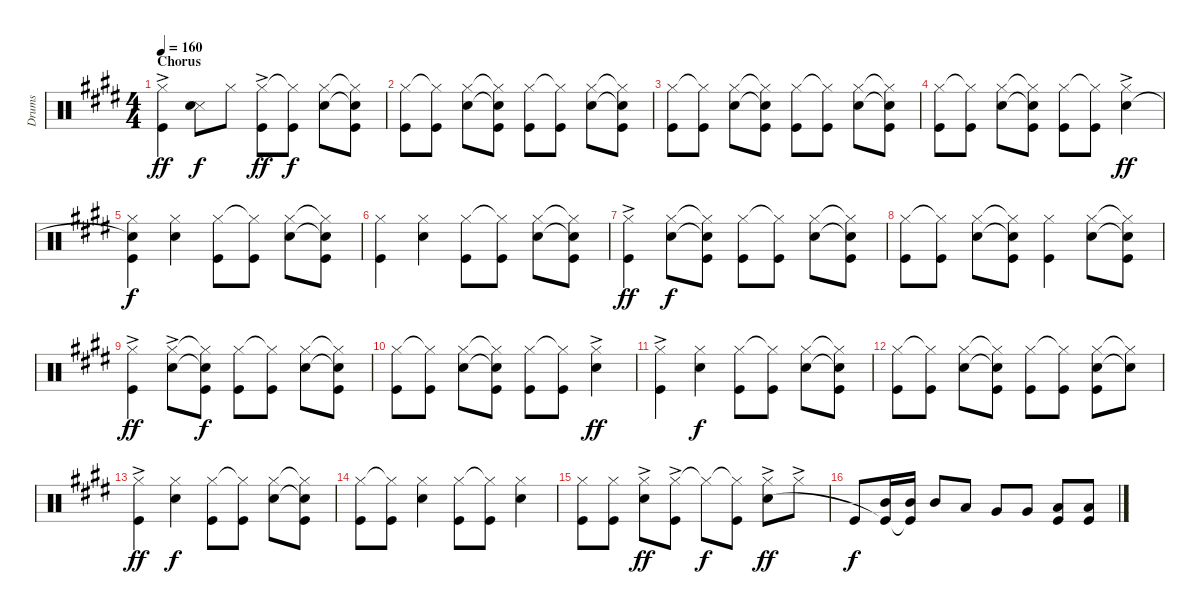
\track ("Drums" "Drums") {instrument percussion}
\staff {score}
\articulation defaults
\ts (4 4)
\section ("" "Chorus")
\tempo 160
\clef neutral
\ks e
("Hi-Hat (closed)"{ac} "Kick (hit)").4{dy ff} ("Snare (side stick) 3" "Snare (hit) 2").8{dy f} "Hi-Hat (closed)".8 ("Hi-Hat (closed)"{ac} "Kick (hit)").8{dy ff} ("Hi-Hat (closed)"{t} "Kick (hit)").8{dy f} ("Hi-Hat (closed)" "Snare (hit) 2").8 ("Hi-Hat (closed)"{t} "Snare (hit) 2"{t} "Kick (hit)").8 |
("Hi-Hat (closed)" "Kick (hit)").8 ("Hi-Hat (closed)"{t} "Kick (hit)").8 ("Hi-Hat (closed)" "Snare (hit) 2").8 ("Hi-Hat (closed)"{t} "Snare (hit) 2"{t} "Kick (hit)").8 ("Hi-Hat (closed)" "Kick (hit)").8 ("Hi-Hat (closed)"{t} "Kick (hit)").8 ("Hi-Hat (closed)" "Snare (hit) 2").8 ("Hi-Hat (closed)"{t} "Snare (hit) 2"{t} "Kick (hit)").8 |
("Hi-Hat (closed)" "Kick (hit)").8 ("Hi-Hat (closed)"{t} "Kick (hit)").8 ("Hi-Hat (closed)" "Snare (hit) 2").8 ("Hi-Hat (closed)"{t} "Snare (hit) 2"{t} "Kick (hit)").8 ("Hi-Hat (closed)" "Kick (hit)").8 ("Hi-Hat (closed)"{t} "Kick (hit)").8 ("Hi-Hat (closed)" "Snare (hit) 2").8 ("Hi-Hat (closed)"{t} "Snare (hit) 2"{t} "Kick (hit)").8 |
("Hi-Hat (closed)" "Kick (hit)").8 ("Hi-Hat (closed)"{t} "Kick (hit)").8 ("Hi-Hat (closed)" "Snare (hit) 2").8 ("Hi-Hat (closed)"{t} "Snare (hit) 2"{t} "Kick (hit)").8 ("Hi-Hat (closed)" "Kick (hit)").8 ("Hi-Hat (closed)"{t} "Kick (hit)").8 ("Hi-Hat (closed)"{ac} "Snare (hit) 2").4{dy ff} |
("Hi-Hat (closed)" "Snare (hit)"{t} "Kick (hit)").4{dy f} ("Hi-Hat (closed)" "Snare (hit) 2").4 ("Hi-Hat (closed)" "Kick (hit)").8 ("Hi-Hat (closed)"{t} "Kick (hit)").8 ("Hi-Hat (closed)" "Snare (hit) 2").8 ("Hi-Hat (closed)"{t} "Snare (hit) 2"{t} "Kick (hit)").8 |
("Hi-Hat (closed)" "Kick (hit)").4 ("Hi-Hat (closed)" "Snare (hit) 2").4 ("Hi-Hat (closed)" "Kick (hit)").8 ("Hi-Hat (closed)"{t} "Kick (hit)").8 ("Hi-Hat (closed)" "Snare (hit) 2").8 ("Hi-Hat (closed)"{t} "Snare (hit) 2"{t} "Kick (hit)").8 |
("Hi-Hat (closed)"{ac} "Kick (hit)").4{dy ff} ("Hi-Hat (closed)" "Snare (hit) 2").8{dy f} ("Hi-Hat (closed)"{t} "Snare (hit) 2"{t} "Kick (hit)").8 ("Hi-Hat (closed)" "Kick (hit)").8 ("Hi-Hat (closed)"{t} "Kick (hit)").8 ("Hi-Hat (closed)" "Snare (hit) 2").8 ("Hi-Hat (closed)"{t} "Snare (hit) 2"{t} "Kick (hit)").8 |
("Hi-Hat (closed)" "Kick (hit)").8 ("Hi-Hat (closed)"{t} "Kick (hit)").8 ("Hi-Hat (closed)" "Snare (hit) 2").8 ("Hi-Hat (closed)"{t} "Snare (hit) 2"{t} "Kick (hit)").8 ("Hi-Hat (closed)" "Kick (hit)").4 ("Hi-Hat (closed)" "Snare (hit) 2").8 ("Hi-Hat (closed)"{t} "Snare (hit) 2"{t} "Kick (hit)").8 |
("Hi-Hat (closed)"{ac} "Kick (hit)").4{dy ff} ("Hi-Hat (closed)"{ac} "Snare (hit) 2").8 ("Hi-Hat (closed)"{t} "Snare (hit) 2"{t} "Kick (hit)").8{dy f} ("Hi-Hat (closed)" "Kick (hit)").8 ("Hi-Hat (closed)"{t} "Kick (hit)").8 ("Hi-Hat (closed)" "Snare (hit) 2").8 ("Hi-Hat (closed)"{t} "Snare (hit) 2"{t} "Kick (hit)").8 |
("Hi-Hat (closed)" "Kick (hit)").8 ("Hi-Hat (closed)"{t} "Kick (hit)").8 ("Hi-Hat (closed)" "Snare (hit) 2").8 ("Hi-Hat (closed)"{t} "Snare (hit) 2"{t} "Kick (hit)").8 ("Hi-Hat (closed)" "Kick (hit)").8 ("Hi-Hat (closed)"{t} "Kick (hit)").8 ("Hi-Hat (closed)"{ac} "Snare (hit) 2").4{dy ff} |
("Hi-Hat (closed)"{ac} "Kick (hit)").4 ("Hi-Hat (closed)" "Snare (hit) 2").4{dy f} ("Hi-Hat (closed)" "Kick (hit)").8 ("Hi-Hat (closed)"{t} "Kick (hit)").8 ("Hi-Hat (closed)" "Snare (hit) 2").8 ("Hi-Hat (closed)"{t} "Snare (hit) 2"{t} "Kick (hit)").8 |
("Hi-Hat (closed)" "Kick (hit)").8 ("Hi-Hat (closed)"{t} "Kick (hit)").8 ("Hi-Hat (closed)" "Snare (hit) 2").8 ("Hi-Hat (closed)"{t} "Snare (hit) 2"{t} "Kick (hit)").8 ("Hi-Hat (closed)" "Kick (hit)").8 ("Hi-Hat (closed)"{t} "Kick (hit)").8 ("Hi-Hat (closed)" "Snare (hit) 2" "Kick (hit)").8 ("Hi-Hat (closed)"{t} "Snare (hit) 2"{t}).8 |
("Hi-Hat (closed)"{ac} "Kick (hit)").4{dy ff} ("Hi-Hat (closed)" "Snare (hit) 2").4{dy f} ("Hi-Hat (closed)" "Kick (hit)").8 ("Hi-Hat (closed)"{t} "Kick (hit)").8 ("Hi-Hat (closed)" "Snare (hit) 2").8 ("Hi-Hat (closed)"{t} "Snare (hit) 2"{t} "Kick (hit)").8 |
("Hi-Hat (closed)" "Kick (hit)").8 ("Hi-Hat (closed)"{t} "Kick (hit)").8 ("Hi-Hat (closed)" "Snare (hit) 2").4 ("Hi-Hat (closed)" "Kick (hit)").8 ("Hi-Hat (closed)"{t} "Kick (hit)").8 ("Hi-Hat (closed)" "Snare (hit) 2").4 |
("Hi-Hat (closed)" "Kick (hit)").8 ("Hi-Hat (closed)" "Kick (hit)").8 ("Hi-Hat (closed)"{ac} "Snare (hit) 2").8{dy ff} ("Hi-Hat (closed)"{ac} "Kick (hit)").8 "Hi-Hat (closed)"{t}.8{dy f} ("Hi-Hat (closed)"{t} "Kick (hit)").8 ("Hi-Hat (closed)"{ac} "Snare (hit) 2").8{dy ff} "Hi-Hat (closed)"{ac}.8 |
"Kick (hit)".8{dy f} ("Mid Tom (hit)" "Kick (hit)"{t}).16 ("Mid Tom (hit)" "Kick (hit)"{t}).16 "Mid Tom (hit)".8 "Low Tom (hit)".8 "Very Low Tom (hit)".8 "Very Low Tom (hit)".8 ("Low Floor Tom (hit)" "Kick (hit)").8 ("Low Floor Tom (hit)" "Kick (hit)").8
